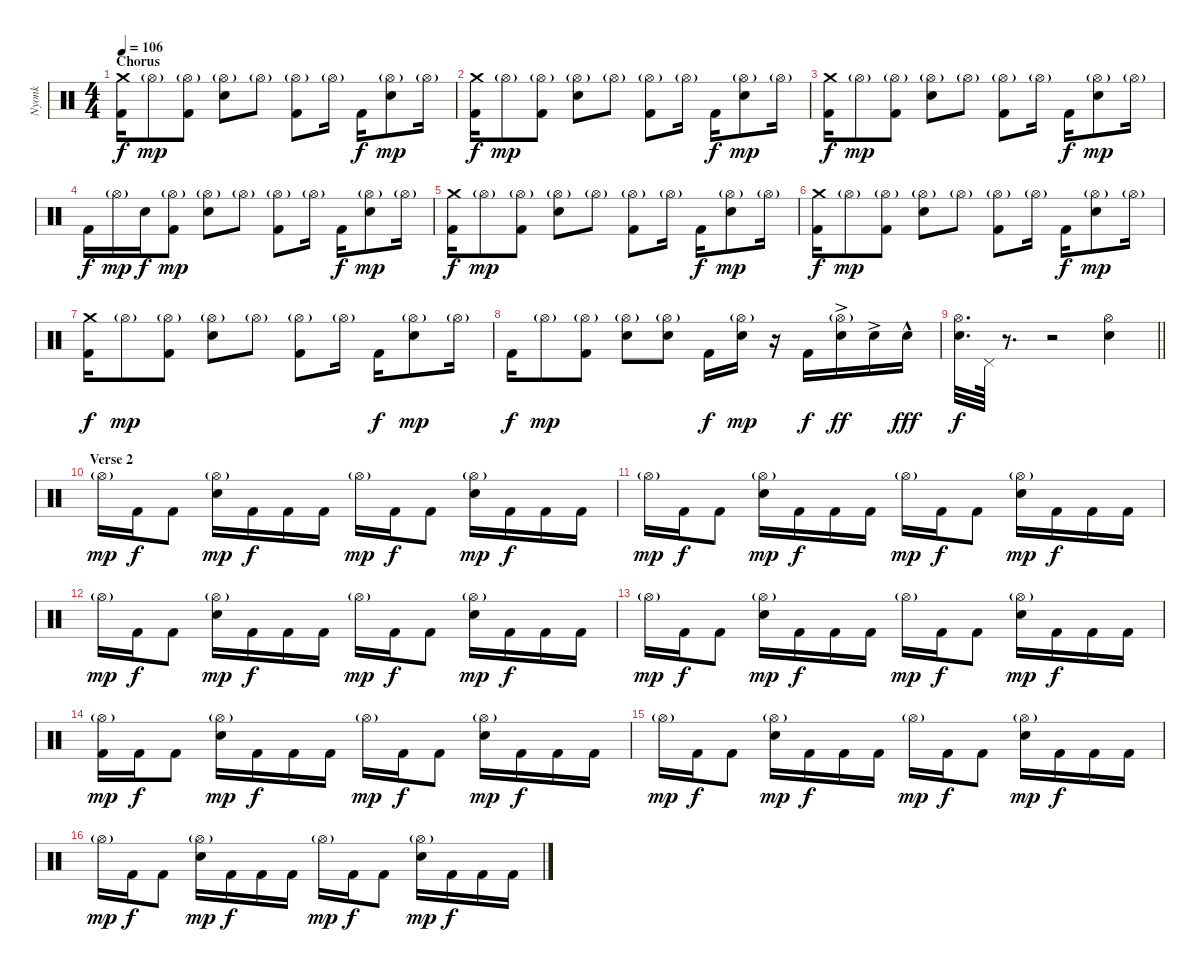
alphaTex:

\track ("Nyonk" "Nyonk") {instrument percussion}
\staff {score}
\articulation defaults
\ts (4 4)
\section ("" "Chorus")
\tempo 106
\clef neutral
\ks c
("Crash medium (hit)" "Kick (hit) 2").16{dy f} "Hi-Hat (open)"{g}.8{dy mp} ("Hi-Hat (open)"{g} "Kick (hit) 2").8 ("Hi-Hat (open)"{g} "Electric Snare (hit)").8 "Hi-Hat (open)"{g}.8 ("Hi-Hat (open)"{g} "Kick (hit) 2").8 "Hi-Hat (open)"{g}.16 "Kick (hit) 2".16{dy f} ("Hi-Hat (open)"{g} "Electric Snare (hit)").8{dy mp} "Hi-Hat (open)"{g}.16 |
("Crash medium (hit)" "Kick (hit) 2").16{dy f} "Hi-Hat (open)"{g}.8{dy mp} ("Hi-Hat (open)"{g} "Kick (hit) 2").8 ("Hi-Hat (open)"{g} "Electric Snare (hit)").8 "Hi-Hat (open)"{g}.8 ("Hi-Hat (open)"{g} "Kick (hit) 2").8 "Hi-Hat (open)"{g}.16 "Kick (hit) 2".16{dy f} ("Hi-Hat (open)"{g} "Electric Snare (hit)").8{dy mp} "Hi-Hat (open)"{g}.16 |
("Crash medium (hit)" "Kick (hit) 2").16{dy f} "Hi-Hat (open)"{g}.8{dy mp} ("Hi-Hat (open)"{g} "Kick (hit) 2").8 ("Hi-Hat (open)"{g} "Electric Snare (hit)").8 "Hi-Hat (open)"{g}.8 ("Hi-Hat (open)"{g} "Kick (hit) 2").8 "Hi-Hat (open)"{g}.16 "Kick (hit) 2".16{dy f} ("Hi-Hat (open)"{g} "Electric Snare (hit)").8{dy mp} "Hi-Hat (open)"{g}.16 |
"Kick (hit) 2".16{dy f} "Hi-Hat (open)"{g}.16{dy mp} "Electric Snare (hit)".16{dy f} ("Hi-Hat (open)"{g} "Kick (hit) 2").8{dy mp} ("Hi-Hat (open)"{g} "Electric Snare (hit)").8 "Hi-Hat (open)"{g}.8 ("Hi-Hat (open)"{g} "Kick (hit) 2").8 "Hi-Hat (open)"{g}.16 "Kick (hit) 2".16{dy f} ("Hi-Hat (open)"{g} "Electric Snare (hit)").8{dy mp} "Hi-Hat (open)"{g}.16 |
("Crash medium (hit)" "Kick (hit) 2").16{dy f} "Hi-Hat (open)"{g}.8{dy mp} ("Hi-Hat (open)"{g} "Kick (hit) 2").8 ("Hi-Hat (open)"{g} "Electric Snare (hit)").8 "Hi-Hat (open)"{g}.8 ("Hi-Hat (open)"{g} "Kick (hit) 2").8 "Hi-Hat (open)"{g}.16 "Kick (hit) 2".16{dy f} ("Hi-Hat (open)"{g} "Electric Snare (hit)").8{dy mp} "Hi-Hat (open)"{g}.16 |
("Crash medium (hit)" "Kick (hit) 2").16{dy f} "Hi-Hat (open)"{g}.8{dy mp} ("Hi-Hat (open)"{g} "Kick (hit) 2").8 ("Hi-Hat (open)"{g} "Electric Snare (hit)").8 "Hi-Hat (open)"{g}.8 ("Hi-Hat (open)"{g} "Kick (hit) 2").8 "Hi-Hat (open)"{g}.16 "Kick (hit) 2".16{dy f} ("Hi-Hat (open)"{g} "Electric Snare (hit)").8{dy mp} "Hi-Hat (open)"{g}.16 |
("Crash medium (hit)" "Kick (hit) 2").16{dy f} "Hi-Hat (open)"{g}.8{dy mp} ("Hi-Hat (open)"{g} "Kick (hit) 2").8 ("Hi-Hat (open)"{g} "Electric Snare (hit)").8 "Hi-Hat (open)"{g}.8 ("Hi-Hat (open)"{g} "Kick (hit) 2").8 "Hi-Hat (open)"{g}.16 "Kick (hit) 2".16{dy f} ("Hi-Hat (open)"{g} "Electric Snare (hit)").8{dy mp} "Hi-Hat (open)"{g}.16 |
"Kick (hit) 2".16{dy f} "Hi-Hat (open)"{g}.8{dy mp} ("Hi-Hat (open)"{g} "Kick (hit) 2").8 ("Hi-Hat (open)"{g} "Electric Snare (hit)").8 ("Hi-Hat (open)"{g} "Electric Snare (hit)").8 "Kick (hit) 2".16{dy f} ("Hi-Hat (open)"{g} "Electric Snare (hit)").16{dy mp} r.16 "Kick (hit) 2".16{dy f} ("Hi-Hat (open)"{g} "Electric Snare (hit)"{ac}).16{dy ff} "Electric Snare (hit)"{ac}.16 "Electric Snare (hit)"{hac}.16{dy fff} |
\barLineRight lightlight
("Hi-Hat (open)" "Electric Snare (hit)").32{d dy f} "Pedal Hi-Hat (hit)".64 r.8{d} r.2 ("Hi-Hat (open)" "Electric Snare (hit)").4 |
\section ("" "Verse 2")
"Hi-Hat (open)"{g}.16{dy mp} "Kick (hit) 2".16{dy f} "Kick (hit) 2".8 ("Hi-Hat (open)"{g} "Electric Snare (hit)").16{dy mp} "Kick (hit) 2".16{dy f} "Kick (hit) 2".16 "Kick (hit) 2".16 "Hi-Hat (open)"{g}.16{dy mp} "Kick (hit) 2".16{dy f} "Kick (hit) 2".8 ("Hi-Hat (open)"{g} "Electric Snare (hit)").16{dy mp} "Kick (hit) 2".16{dy f} "Kick (hit) 2".16 "Kick (hit) 2".16 |
"Hi-Hat (open)"{g}.16{dy mp} "Kick (hit) 2".16{dy f} "Kick (hit) 2".8 ("Hi-Hat (open)"{g} "Electric Snare (hit)").16{dy mp} "Kick (hit) 2".16{dy f} "Kick (hit) 2".16 "Kick (hit) 2".16 "Hi-Hat (open)"{g}.16{dy mp} "Kick (hit) 2".16{dy f} "Kick (hit) 2".8 ("Hi-Hat (open)"{g} "Electric Snare (hit)").16{dy mp} "Kick (hit) 2".16{dy f} "Kick (hit) 2".16 "Kick (hit) 2".16 |
"Hi-Hat (open)"{g}.16{dy mp} "Kick (hit) 2".16{dy f} "Kick (hit) 2".8 ("Hi-Hat (open)"{g} "Electric Snare (hit)").16{dy mp} "Kick (hit) 2".16{dy f} "Kick (hit) 2".16 "Kick (hit) 2".16 "Hi-Hat (open)"{g}.16{dy mp} "Kick (hit) 2".16{dy f} "Kick (hit) 2".8 ("Hi-Hat (open)"{g} "Electric Snare (hit)").16{dy mp} "Kick (hit) 2".16{dy f} "Kick (hit) 2".16 "Kick (hit) 2".16 |
"Hi-Hat (open)"{g}.16{dy mp} "Kick (hit) 2".16{dy f} "Kick (hit) 2".8 ("Hi-Hat (open)"{g} "Electric Snare (hit)").16{dy mp} "Kick (hit) 2".16{dy f} "Kick (hit) 2".16 "Kick (hit) 2".16 "Hi-Hat (open)"{g}.16{dy mp} "Kick (hit) 2".16{dy f} "Kick (hit) 2".8 ("Hi-Hat (open)"{g} "Electric Snare (hit)").16{dy mp} "Kick (hit) 2".16{dy f} "Kick (hit) 2".16 "Kick (hit) 2".16 |
("Hi-Hat (open)"{g} "Kick (hit) 2").16{dy mp} "Kick (hit) 2".16{dy f} "Kick (hit) 2".8 ("Hi-Hat (open)"{g} "Electric Snare (hit)").16{dy mp} "Kick (hit) 2".16{dy f} "Kick (hit) 2".16 "Kick (hit) 2".16 "Hi-Hat (open)"{g}.16{dy mp} "Kick (hit) 2".16{dy f} "Kick (hit) 2".8 ("Hi-Hat (open)"{g} "Electric Snare (hit)").16{dy mp} "Kick (hit) 2".16{dy f} "Kick (hit) 2".16 "Kick (hit) 2".16 |
"Hi-Hat (open)"{g}.16{dy mp} "Kick (hit) 2".16{dy f} "Kick (hit) 2".8 ("Hi-Hat (open)"{g} "Electric Snare (hit)").16{dy mp} "Kick (hit) 2".16{dy f} "Kick (hit) 2".16 "Kick (hit) 2".16 "Hi-Hat (open)"{g}.16{dy mp} "Kick (hit) 2".16{dy f} "Kick (hit) 2".8 ("Hi-Hat (open)"{g} "Electric Snare (hit)").16{dy mp} "Kick (hit) 2".16{dy f} "Kick (hit) 2".16 "Kick (hit) 2".16 |
"Hi-Hat (open)"{g}.16{dy mp} "Kick (hit) 2".16{dy f} "Kick (hit) 2".8 ("Hi-Hat (open)"{g} "Electric Snare (hit)").16{dy mp} "Kick (hit) 2".16{dy f} "Kick (hit) 2".16 "Kick (hit) 2".16 "Hi-Hat (open)"{g}.16{dy mp} "Kick (hit) 2".16{dy f} "Kick (hit) 2".8 ("Hi-Hat (open)"{g} "Electric Snare (hit)").16{dy mp} "Kick (hit) 2".16{dy f} "Kick (hit) 2".16 "Kick (hit) 2".16
